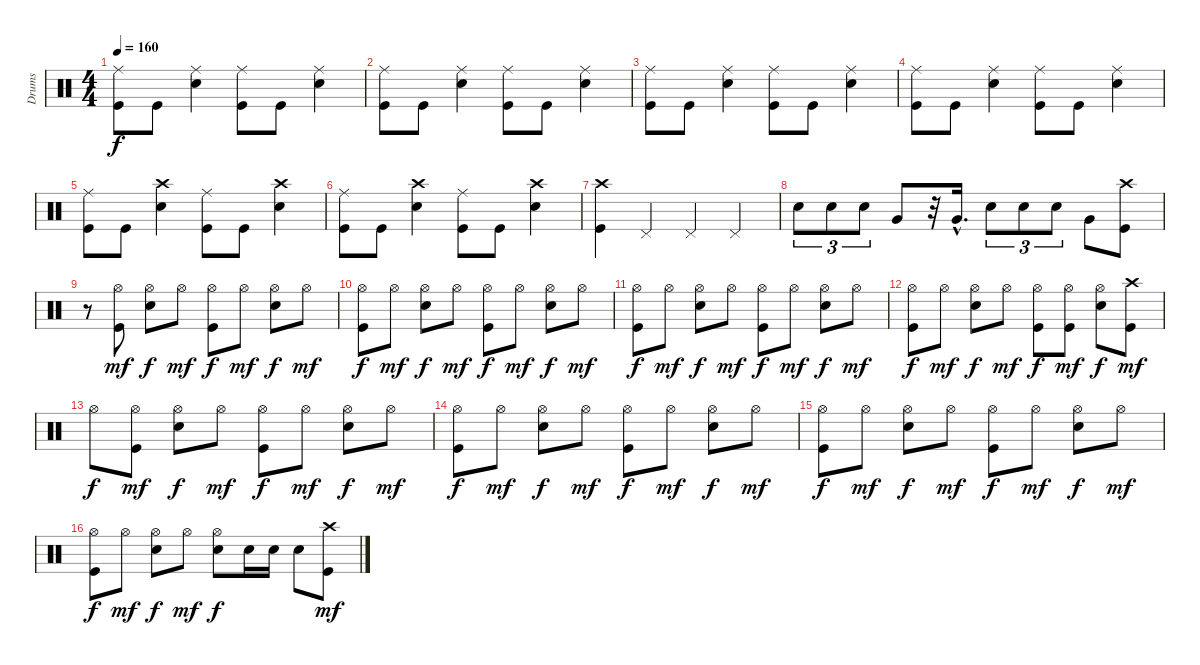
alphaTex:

\track ("Drums" "Drums") {instrument percussion}
\staff {score}
\articulation defaults
\ts (4 4)
\tempo 160
\clef neutral
\ks c
("Ride (middle)" "Kick (hit)").8{dy f} "Kick (hit)".8 ("Ride (middle)" "Snare (hit) 2").4 ("Ride (middle)" "Kick (hit)").8 "Kick (hit)".8 ("Ride (middle)" "Snare (hit) 2").4 |
("Ride (middle)" "Kick (hit)").8 "Kick (hit)".8 ("Ride (middle)" "Snare (hit) 2").4 ("Ride (middle)" "Kick (hit)").8 "Kick (hit)".8 ("Ride (middle)" "Snare (hit) 2").4 |
("Ride (middle)" "Kick (hit)").8 "Kick (hit)".8 ("Ride (middle)" "Snare (hit) 2").4 ("Ride (middle)" "Kick (hit)").8 "Kick (hit)".8 ("Ride (middle)" "Snare (hit) 2").4 |
("Ride (middle)" "Kick (hit)").8 "Kick (hit)".8 ("Ride (middle)" "Snare (hit) 2").4 ("Ride (middle)" "Kick (hit)").8 "Kick (hit)".8 ("Ride (middle)" "Snare (hit) 2").4 |
("Ride (middle)" "Kick (hit)").8 "Kick (hit)".8 ("Crash high (hit)" "Snare (hit) 2").4 ("Ride (middle)" "Kick (hit)").8 "Kick (hit)".8 ("Crash high (hit)" "Snare (hit) 2").4 |
("Ride (middle)" "Kick (hit)").8 "Kick (hit)".8 ("Crash high (hit)" "Snare (hit) 2").4 ("Ride (middle)" "Kick (hit)").8 "Kick (hit)".8 ("Crash high (hit)" "Snare (hit) 2").4 |
("Crash high (hit)" "Kick (hit)").4 "Pedal Hi-Hat (hit)".4 "Pedal Hi-Hat (hit)".4 "Pedal Hi-Hat (hit)".4 |
"Snare (hit) 2".8{tu (3 2)} "Snare (hit) 2".8{tu (3 2)} "Snare (hit) 2".8{tu (3 2)} "Very Low Tom (hit)".8 r.32 "Very Low Tom (hit)"{hac}.16{d} "Snare (hit) 2".8{tu (3 2)} "Snare (hit) 2".8{tu (3 2)} "Snare (hit) 2".8{tu (3 2)} "Very Low Tom (hit)".8 ("Crash high (hit)" "Kick (hit)").8 |
r.8 ("Hi-Hat (open)" "Kick (hit)").8{dy mf} ("Hi-Hat (open)" "Snare (hit) 2").8{dy f} "Hi-Hat (open)".8{dy mf} ("Hi-Hat (open)" "Kick (hit)").8{dy f} "Hi-Hat (open)".8{dy mf} ("Hi-Hat (open)" "Snare (hit) 2").8{dy f} "Hi-Hat (open)".8{dy mf} |
("Hi-Hat (open)" "Kick (hit)").8{dy f} "Hi-Hat (open)".8{dy mf} ("Hi-Hat (open)" "Snare (hit) 2").8{dy f} "Hi-Hat (open)".8{dy mf} ("Hi-Hat (open)" "Kick (hit)").8{dy f} "Hi-Hat (open)".8{dy mf} ("Hi-Hat (open)" "Snare (hit) 2").8{dy f} "Hi-Hat (open)".8{dy mf} |
("Hi-Hat (open)" "Kick (hit)").8{dy f} "Hi-Hat (open)".8{dy mf} ("Hi-Hat (open)" "Snare (hit) 2").8{dy f} "Hi-Hat (open)".8{dy mf} ("Hi-Hat (open)" "Kick (hit)").8{dy f} "Hi-Hat (open)".8{dy mf} ("Hi-Hat (open)" "Snare (hit) 2").8{dy f} "Hi-Hat (open)".8{dy mf} |
("Hi-Hat (open)" "Kick (hit)").8{dy f} "Hi-Hat (open)".8{dy mf} ("Hi-Hat (open)" "Snare (hit) 2").8{dy f} "Hi-Hat (open)".8{dy mf} ("Hi-Hat (open)" "Kick (hit)").8{dy f} ("Hi-Hat (open)" "Kick (hit)").8{dy mf} ("Hi-Hat (open)" "Snare (hit) 2").8{dy f} ("Crash high (hit)" "Kick (hit)").8{dy mf} |
"Hi-Hat (open)".8{dy f} ("Hi-Hat (open)" "Kick (hit)").8{dy mf} ("Hi-Hat (open)" "Snare (hit) 2").8{dy f} "Hi-Hat (open)".8{dy mf} ("Hi-Hat (open)" "Kick (hit)").8{dy f} "Hi-Hat (open)".8{dy mf} ("Hi-Hat (open)" "Snare (hit) 2").8{dy f} "Hi-Hat (open)".8{dy mf} |
("Hi-Hat (open)" "Kick (hit)").8{dy f} "Hi-Hat (open)".8{dy mf} ("Hi-Hat (open)" "Snare (hit) 2").8{dy f} "Hi-Hat (open)".8{dy mf} ("Hi-Hat (open)" "Kick (hit)").8{dy f} "Hi-Hat (open)".8{dy mf} ("Hi-Hat (open)" "Snare (hit) 2").8{dy f} "Hi-Hat (open)".8{dy mf} |
("Hi-Hat (open)" "Kick (hit)").8{dy f} "Hi-Hat (open)".8{dy mf} ("Hi-Hat (open)" "Snare (hit) 2").8{dy f} "Hi-Hat (open)".8{dy mf} ("Hi-Hat (open)" "Kick (hit)").8{dy f} "Hi-Hat (open)".8{dy mf} ("Hi-Hat (open)" "Snare (hit) 2").8{dy f} "Hi-Hat (open)".8{dy mf} |
("Hi-Hat (open)" "Kick (hit)").8{dy f} "Hi-Hat (open)".8{dy mf} ("Hi-Hat (open)" "Snare (hit) 2").8{dy f} "Hi-Hat (open)".8{dy mf} ("Hi-Hat (open)" "Snare (hit) 2").8{dy f} "Snare (hit) 2".16 "Snare (hit) 2".16 "Snare (hit) 2".8 ("Crash high (hit)" "Kick (hit)").8{dy mf}
